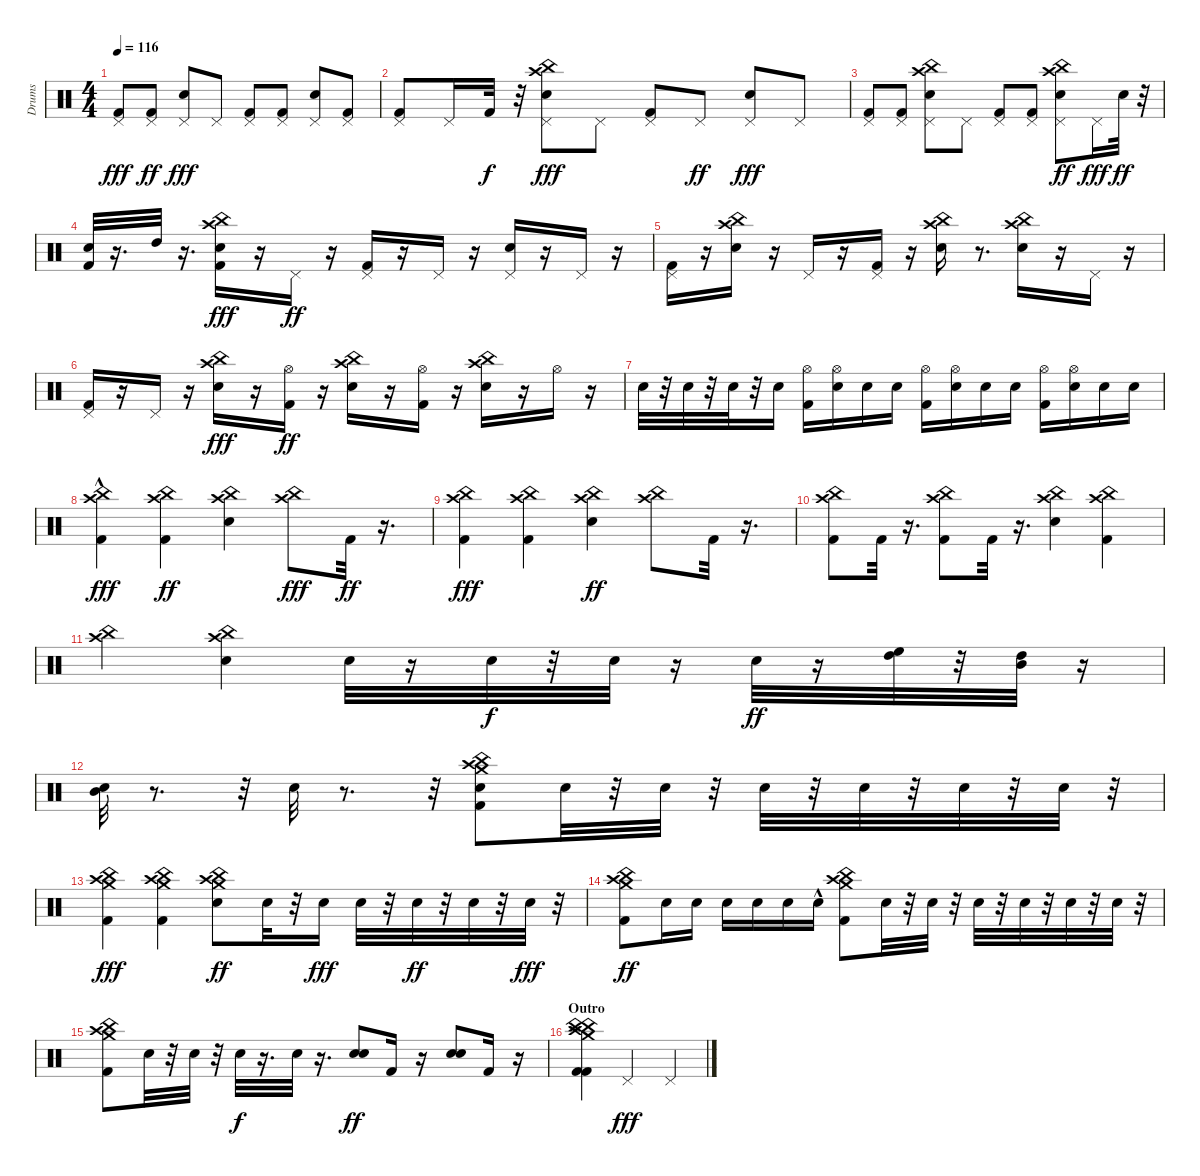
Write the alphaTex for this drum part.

\track ("Drums" "Drums") {instrument percussion}
\staff {score}
\articulation defaults
\ts (4 4)
\tempo 116
\clef neutral
\ks c
("Kick (hit) 2" "Pedal Hi-Hat (hit)").8{dy fff} ("Kick (hit) 2" "Pedal Hi-Hat (hit)").8{dy ff} ("Snare (hit) 2" "Pedal Hi-Hat (hit)").8{dy fff} "Pedal Hi-Hat (hit)".8 ("Kick (hit) 2" "Pedal Hi-Hat (hit)").8 ("Kick (hit) 2" "Pedal Hi-Hat (hit)").8 ("Snare (hit) 2" "Pedal Hi-Hat (hit)").8 ("Kick (hit) 2" "Pedal Hi-Hat (hit)").8 |
("Kick (hit) 2" "Pedal Hi-Hat (hit)").8 "Pedal Hi-Hat (hit)".16 "Kick (hit) 2".32{dy f} r.32 ("China (hit)" "Crash high (hit)" "Snare (hit) 2" "Pedal Hi-Hat (hit)").8{dy fff} "Pedal Hi-Hat (hit)".8 ("Kick (hit) 2" "Pedal Hi-Hat (hit)").8 "Pedal Hi-Hat (hit)".8{dy ff} ("Snare (hit) 2" "Pedal Hi-Hat (hit)").8{dy fff} "Pedal Hi-Hat (hit)".8 |
("Kick (hit) 2" "Pedal Hi-Hat (hit)").8 ("Kick (hit) 2" "Pedal Hi-Hat (hit)").8 ("China (hit)" "Snare (hit) 2" "Crash high (hit)" "Pedal Hi-Hat (hit)").8 "Pedal Hi-Hat (hit)".8 ("Kick (hit) 2" "Pedal Hi-Hat (hit)").8 ("Kick (hit) 2" "Pedal Hi-Hat (hit)").8 ("China (hit)" "Crash high (hit)" "Pedal Hi-Hat (hit)" "Snare (hit) 2").8{dy ff} "Pedal Hi-Hat (hit)".16{dy fff} "Snare (hit) 2".32{dy ff} r.32 |
("Kick (hit) 2" "Snare (hit) 2").32 r.16{d} "High Tom (hit)".32 r.16{d} ("China (hit)" "Snare (hit) 2" "Kick (hit) 2" "Crash high (hit)").16{dy fff} r.16 "Pedal Hi-Hat (hit)".16{dy ff} r.16 ("Pedal Hi-Hat (hit)" "Kick (hit) 2").16 r.16 "Pedal Hi-Hat (hit)".16 r.16 ("Pedal Hi-Hat (hit)" "Snare (hit) 2").16 r.16 "Pedal Hi-Hat (hit)".16 r.16 |
("Pedal Hi-Hat (hit)" "Kick (hit) 2").16 r.16 ("China (hit)" "Crash high (hit)" "Snare (hit) 2").16 r.16 "Pedal Hi-Hat (hit)".16 r.16 ("Pedal Hi-Hat (hit)" "Kick (hit) 2").16 r.16 ("China (hit)" "Crash high (hit)" "Snare (hit) 2").16 r.8{d} ("China (hit)" "Crash high (hit)" "Snare (hit) 2").16 r.16 "Pedal Hi-Hat (hit)".16 r.16 |
("Pedal Hi-Hat (hit)" "Kick (hit) 2").16 r.16 "Pedal Hi-Hat (hit)".16 r.16 ("China (hit)" "Crash high (hit)" "Snare (hit) 2").16{dy fff} r.16 ("Kick (hit) 2" "Hi-Hat (open)").16{dy ff} r.16 ("China (hit)" "Snare (hit) 2" "Crash high (hit)").16 r.16 ("Kick (hit) 2" "Hi-Hat (open)").16 r.16 ("China (hit)" "Snare (hit) 2" "Crash high (hit)").16 r.16 "Hi-Hat (open)".16 r.16 |
"Snare (hit) 2".32 r.32 "Snare (hit) 2".32 r.32 "Snare (hit) 2".32 r.32 "Snare (hit) 2".16 ("Kick (hit) 2" "Hi-Hat (open)").16 ("Hi-Hat (open)" "Snare (hit) 2").16 "Snare (hit) 2".16 "Snare (hit) 2".16 ("Kick (hit) 2" "Hi-Hat (open)").16 ("Hi-Hat (open)" "Snare (hit) 2").16 "Snare (hit) 2".16 "Snare (hit) 2".16 ("Kick (hit) 2" "Hi-Hat (open)").16 ("Hi-Hat (open)" "Snare (hit) 2").16 "Snare (hit) 2".16 "Snare (hit) 2".16 |
("Kick (hit) 2"{hac} "China (hit)" "Crash high (hit)").4{dy fff} ("Kick (hit) 2" "China (hit)" "Crash high (hit)").4{dy ff} ("China (hit)" "Crash high (hit)" "Snare (hit) 2").4 ("China (hit)" "Crash high (hit)").8{dy fff} "Kick (hit) 2".32{dy ff} r.16{d} |
("Kick (hit) 2" "Crash high (hit)" "China (hit)").4{dy fff} ("Kick (hit) 2" "China (hit)" "Crash high (hit)").4 ("Snare (hit) 2" "China (hit)" "Crash high (hit)").4{dy ff} ("China (hit)" "Crash high (hit)").8 "Kick (hit) 2".32 r.16{d} |
("Kick (hit) 2" "China (hit)" "Crash high (hit)").8 "Kick (hit) 2".32 r.16{d} ("Kick (hit) 2" "China (hit)" "Crash high (hit)").8 "Kick (hit) 2".32 r.16{d} ("Snare (hit) 2" "Crash high (hit)" "China (hit)").4 ("Kick (hit) 2" "Crash high (hit)" "China (hit)").4 |
("Crash high (hit)" "China (hit)").4 ("Snare (hit) 2" "Crash high (hit)" "China (hit)").4 "Snare (hit) 2".32 r.16 "Snare (hit) 2".32{dy f} r.32 "Snare (hit) 2".32 r.16 "Snare (hit) 2".32{dy ff} r.16 ("High Tom (hit)" "High Floor Tom (hit)").32 r.32 ("Mid Tom (hit)" "High Tom (hit)").32 r.16 |
("Snare (hit) 2" "Mid Tom (hit)").32 r.8{d} r.32 "Snare (hit) 2".32 r.8{d} r.32 ("Crash medium (hit)" "China (hit)" "Crash high (hit)" "Kick (hit) 2" "Snare (hit) 2").8 "Snare (hit) 2".32 r.32 "Snare (hit) 2".32 r.32 "Snare (hit) 2".32 r.32 "Snare (hit) 2".32 r.32 "Snare (hit) 2".32 r.32 "Snare (hit) 2".32 r.32 |
("Crash medium (hit)" "Kick (hit) 2" "Crash high (hit)" "China (hit)").4{dy fff} ("Crash medium (hit)" "Kick (hit) 2" "China (hit)" "Crash high (hit)").4 ("Crash medium (hit)" "Snare (hit) 2" "China (hit)" "Crash high (hit)").8{dy ff} "Snare (hit) 2".32 r.32 "Snare (hit) 2".16{dy fff} "Snare (hit) 2".32 r.32 "Snare (hit) 2".32{dy ff} r.32 "Snare (hit) 2".32 r.32 "Snare (hit) 2".32{dy fff} r.32 |
("Crash medium (hit)" "China (hit)" "Crash high (hit)" "Kick (hit) 2").8{dy ff} "Snare (hit) 2".16 "Snare (hit) 2".16 "Snare (hit) 2".16 "Snare (hit) 2".16 "Snare (hit) 2".16 "Snare (hit) 2"{hac}.16 ("Crash medium (hit)" "Kick (hit) 2" "Crash high (hit)" "China (hit)").8 "Snare (hit) 2".32 r.32 "Snare (hit) 2".32 r.32 "Snare (hit) 2".32 r.32 "Snare (hit) 2".32 r.32 "Snare (hit) 2".32 r.32 "Snare (hit) 2".32 r.32 |
("Crash medium (hit)" "China (hit)" "Crash high (hit)" "Kick (hit) 2").8 "Snare (hit) 2".32 r.32 "Snare (hit) 2".32 r.32 "Snare (hit) 2".32{dy f} r.16{d} "Snare (hit) 2".32 r.16{d} ("Snare (hit) 2" "Snare (hit) 2").8{dy ff} "Kick (hit) 2".16 r.16 ("Snare (hit) 2" "Snare (hit) 2").8 "Kick (hit) 2".16 r.16 |
\section ("" "Outro")
("Crash medium (hit)" "China (hit)" "Crash high (hit)" "Kick (hit) 2" "China (hit)" "Kick (hit) 2").4 "Pedal Hi-Hat (hit)".2{dy fff} "Pedal Hi-Hat (hit)".4
